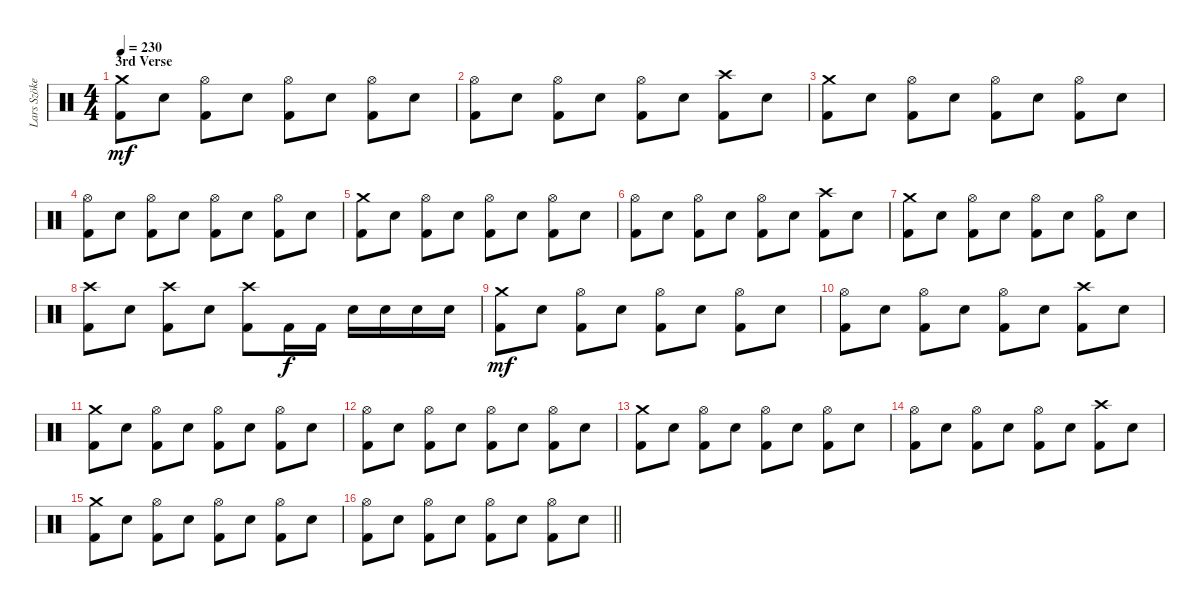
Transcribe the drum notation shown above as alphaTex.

\track ("Lars Szöke" "Lars Szöke") {instrument percussion}
\staff {score}
\articulation defaults
\ts (4 4)
\section ("" "3rd Verse")
\tempo 230
\clef neutral
\ks c
("Crash medium (hit)" "Kick (hit) 2").8{dy mf} "Snare (hit) 2".8 ("Hi-Hat (open)" "Kick (hit) 2").8 "Snare (hit) 2".8 ("Hi-Hat (open)" "Kick (hit) 2").8 "Snare (hit) 2".8 ("Hi-Hat (open)" "Kick (hit) 2").8 "Snare (hit) 2".8 |
("Hi-Hat (open)" "Kick (hit) 2").8 "Snare (hit) 2".8 ("Hi-Hat (open)" "Kick (hit) 2").8 "Snare (hit) 2".8 ("Hi-Hat (open)" "Kick (hit) 2").8 "Snare (hit) 2".8 ("Crash high (hit)" "Kick (hit) 2").8 "Snare (hit) 2".8 |
("Crash medium (hit)" "Kick (hit) 2").8 "Snare (hit) 2".8 ("Hi-Hat (open)" "Kick (hit) 2").8 "Snare (hit) 2".8 ("Hi-Hat (open)" "Kick (hit) 2").8 "Snare (hit) 2".8 ("Hi-Hat (open)" "Kick (hit) 2").8 "Snare (hit) 2".8 |
("Hi-Hat (open)" "Kick (hit) 2").8 "Snare (hit) 2".8 ("Hi-Hat (open)" "Kick (hit) 2").8 "Snare (hit) 2".8 ("Hi-Hat (open)" "Kick (hit) 2").8 "Snare (hit) 2".8 ("Hi-Hat (open)" "Kick (hit) 2").8 "Snare (hit) 2".8 |
("Crash medium (hit)" "Kick (hit) 2").8 "Snare (hit) 2".8 ("Hi-Hat (open)" "Kick (hit) 2").8 "Snare (hit) 2".8 ("Hi-Hat (open)" "Kick (hit) 2").8 "Snare (hit) 2".8 ("Hi-Hat (open)" "Kick (hit) 2").8 "Snare (hit) 2".8 |
("Hi-Hat (open)" "Kick (hit) 2").8 "Snare (hit) 2".8 ("Hi-Hat (open)" "Kick (hit) 2").8 "Snare (hit) 2".8 ("Hi-Hat (open)" "Kick (hit) 2").8 "Snare (hit) 2".8 ("Crash high (hit)" "Kick (hit) 2").8 "Snare (hit) 2".8 |
("Crash medium (hit)" "Kick (hit) 2").8 "Snare (hit) 2".8 ("Hi-Hat (open)" "Kick (hit) 2").8 "Snare (hit) 2".8 ("Hi-Hat (open)" "Kick (hit) 2").8 "Snare (hit) 2".8 ("Hi-Hat (open)" "Kick (hit) 2").8 "Snare (hit) 2".8 |
("Crash high (hit)" "Kick (hit) 2").8 "Snare (hit) 2".8 ("Crash high (hit)" "Kick (hit) 2").8 "Snare (hit) 2".8 ("Crash high (hit)" "Kick (hit) 2").8 "Kick (hit) 2".16{dy f} "Kick (hit) 2".16 "Snare (hit) 2".16 "Snare (hit) 2".16 "Snare (hit) 2".16 "Snare (hit) 2".16 |
("Crash medium (hit)" "Kick (hit) 2").8{dy mf} "Snare (hit) 2".8 ("Hi-Hat (open)" "Kick (hit) 2").8 "Snare (hit) 2".8 ("Hi-Hat (open)" "Kick (hit) 2").8 "Snare (hit) 2".8 ("Hi-Hat (open)" "Kick (hit) 2").8 "Snare (hit) 2".8 |
("Hi-Hat (open)" "Kick (hit) 2").8 "Snare (hit) 2".8 ("Hi-Hat (open)" "Kick (hit) 2").8 "Snare (hit) 2".8 ("Hi-Hat (open)" "Kick (hit) 2").8 "Snare (hit) 2".8 ("Crash high (hit)" "Kick (hit) 2").8 "Snare (hit) 2".8 |
("Crash medium (hit)" "Kick (hit) 2").8 "Snare (hit) 2".8 ("Hi-Hat (open)" "Kick (hit) 2").8 "Snare (hit) 2".8 ("Hi-Hat (open)" "Kick (hit) 2").8 "Snare (hit) 2".8 ("Hi-Hat (open)" "Kick (hit) 2").8 "Snare (hit) 2".8 |
("Hi-Hat (open)" "Kick (hit) 2").8 "Snare (hit) 2".8 ("Hi-Hat (open)" "Kick (hit) 2").8 "Snare (hit) 2".8 ("Hi-Hat (open)" "Kick (hit) 2").8 "Snare (hit) 2".8 ("Hi-Hat (open)" "Kick (hit) 2").8 "Snare (hit) 2".8 |
("Crash medium (hit)" "Kick (hit) 2").8 "Snare (hit) 2".8 ("Hi-Hat (open)" "Kick (hit) 2").8 "Snare (hit) 2".8 ("Hi-Hat (open)" "Kick (hit) 2").8 "Snare (hit) 2".8 ("Hi-Hat (open)" "Kick (hit) 2").8 "Snare (hit) 2".8 |
("Hi-Hat (open)" "Kick (hit) 2").8 "Snare (hit) 2".8 ("Hi-Hat (open)" "Kick (hit) 2").8 "Snare (hit) 2".8 ("Hi-Hat (open)" "Kick (hit) 2").8 "Snare (hit) 2".8 ("Crash high (hit)" "Kick (hit) 2").8 "Snare (hit) 2".8 |
("Crash medium (hit)" "Kick (hit) 2").8 "Snare (hit) 2".8 ("Hi-Hat (open)" "Kick (hit) 2").8 "Snare (hit) 2".8 ("Hi-Hat (open)" "Kick (hit) 2").8 "Snare (hit) 2".8 ("Hi-Hat (open)" "Kick (hit) 2").8 "Snare (hit) 2".8 |
\barLineRight lightlight
("Hi-Hat (open)" "Kick (hit) 2").8 "Snare (hit) 2".8 ("Hi-Hat (open)" "Kick (hit) 2").8 "Snare (hit) 2".8 ("Hi-Hat (open)" "Kick (hit) 2").8 "Snare (hit) 2".8 ("Hi-Hat (open)" "Kick (hit) 2").8 "Snare (hit) 2".8
